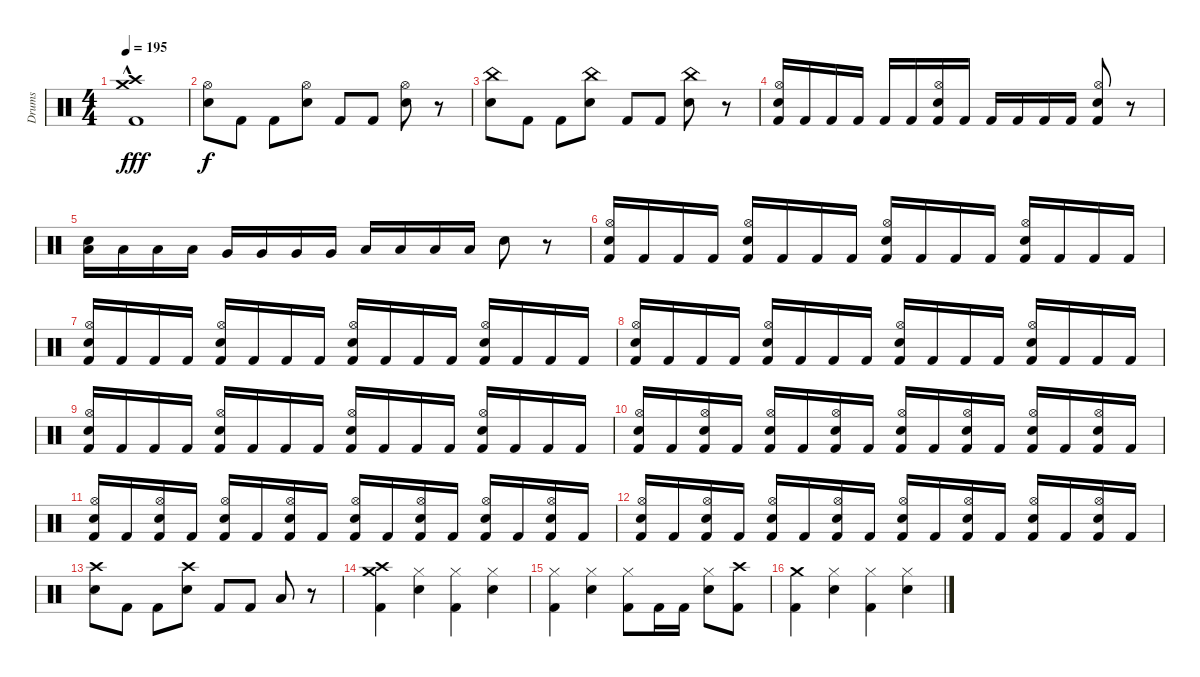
\track ("Drums" "Drums") {instrument percussion}
\staff {score}
\articulation defaults
\ts (4 4)
\tempo 195
\clef neutral
\ks c
("Crash high (hit)" "Crash medium (hit)" "Kick (hit) 2"{hac}).1{dy fff} |
("Hi-Hat (open)" "Electric Snare (hit)").8{dy f} "Kick (hit) 2".8 "Kick (hit) 2".8 ("Hi-Hat (open)" "Electric Snare (hit)").8 "Kick (hit) 2".8 "Kick (hit) 2".8 ("Hi-Hat (open)" "Electric Snare (hit)").8 r.8 |
("China (hit)" "Electric Snare (hit)").8 "Kick (hit) 2".8 "Kick (hit) 2".8 ("China (hit)" "Electric Snare (hit)").8 "Kick (hit) 2".8 "Kick (hit) 2".8 ("China (hit)" "Electric Snare (hit)").8 r.8 |
("Hi-Hat (open)" "Kick (hit) 2" "Electric Snare (hit)").16 "Kick (hit) 2".16 "Kick (hit) 2".16 "Kick (hit) 2".16 "Kick (hit) 2".16 "Kick (hit) 2".16 ("Hi-Hat (open)" "Kick (hit) 2" "Electric Snare (hit)").16 "Kick (hit) 2".16 "Kick (hit) 2".16 "Kick (hit) 2".16 "Kick (hit) 2".16 "Kick (hit) 2".16 ("Hi-Hat (open)" "Kick (hit) 2" "Electric Snare (hit)").8 r.8 |
("Electric Snare (hit)" "Low Tom (hit)").16 "Low Tom (hit)".16 "Low Tom (hit)".16 "Low Tom (hit)".16 "Very Low Tom (hit)".16 "Very Low Tom (hit)".16 "Very Low Tom (hit)".16 "Very Low Tom (hit)".16 "Low Floor Tom (hit)".16 "Low Floor Tom (hit)".16 "Low Floor Tom (hit)".16 "Low Floor Tom (hit)".16 "Electric Snare (hit)".8 r.8 |
("Hi-Hat (open)" "Kick (hit) 2" "Electric Snare (hit)").16 "Kick (hit) 2".16 "Kick (hit) 2".16 "Kick (hit) 2".16 ("Hi-Hat (open)" "Kick (hit) 2" "Electric Snare (hit)").16 "Kick (hit) 2".16 "Kick (hit) 2".16 "Kick (hit) 2".16 ("Hi-Hat (open)" "Kick (hit) 2" "Electric Snare (hit)").16 "Kick (hit) 2".16 "Kick (hit) 2".16 "Kick (hit) 2".16 ("Hi-Hat (open)" "Kick (hit) 2" "Electric Snare (hit)").16 "Kick (hit) 2".16 "Kick (hit) 2".16 "Kick (hit) 2".16 |
("Hi-Hat (open)" "Kick (hit) 2" "Electric Snare (hit)").16 "Kick (hit) 2".16 "Kick (hit) 2".16 "Kick (hit) 2".16 ("Hi-Hat (open)" "Kick (hit) 2" "Electric Snare (hit)").16 "Kick (hit) 2".16 "Kick (hit) 2".16 "Kick (hit) 2".16 ("Hi-Hat (open)" "Kick (hit) 2" "Electric Snare (hit)").16 "Kick (hit) 2".16 "Kick (hit) 2".16 "Kick (hit) 2".16 ("Hi-Hat (open)" "Kick (hit) 2" "Electric Snare (hit)").16 "Kick (hit) 2".16 "Kick (hit) 2".16 "Kick (hit) 2".16 |
("Hi-Hat (open)" "Kick (hit) 2" "Electric Snare (hit)").16 "Kick (hit) 2".16 "Kick (hit) 2".16 "Kick (hit) 2".16 ("Hi-Hat (open)" "Kick (hit) 2" "Electric Snare (hit)").16 "Kick (hit) 2".16 "Kick (hit) 2".16 "Kick (hit) 2".16 ("Hi-Hat (open)" "Kick (hit) 2" "Electric Snare (hit)").16 "Kick (hit) 2".16 "Kick (hit) 2".16 "Kick (hit) 2".16 ("Hi-Hat (open)" "Kick (hit) 2" "Electric Snare (hit)").16 "Kick (hit) 2".16 "Kick (hit) 2".16 "Kick (hit) 2".16 |
("Hi-Hat (open)" "Kick (hit) 2" "Electric Snare (hit)").16 "Kick (hit) 2".16 "Kick (hit) 2".16 "Kick (hit) 2".16 ("Hi-Hat (open)" "Kick (hit) 2" "Electric Snare (hit)").16 "Kick (hit) 2".16 "Kick (hit) 2".16 "Kick (hit) 2".16 ("Hi-Hat (open)" "Kick (hit) 2" "Electric Snare (hit)").16 "Kick (hit) 2".16 "Kick (hit) 2".16 "Kick (hit) 2".16 ("Hi-Hat (open)" "Kick (hit) 2" "Electric Snare (hit)").16 "Kick (hit) 2".16 "Kick (hit) 2".16 "Kick (hit) 2".16 |
("Hi-Hat (open)" "Kick (hit) 2" "Electric Snare (hit)").16 "Kick (hit) 2".16 ("Hi-Hat (open)" "Kick (hit) 2" "Electric Snare (hit)").16 "Kick (hit) 2".16 ("Hi-Hat (open)" "Kick (hit) 2" "Electric Snare (hit)").16 "Kick (hit) 2".16 ("Hi-Hat (open)" "Kick (hit) 2" "Electric Snare (hit)").16 "Kick (hit) 2".16 ("Hi-Hat (open)" "Kick (hit) 2" "Electric Snare (hit)").16 "Kick (hit) 2".16 ("Hi-Hat (open)" "Kick (hit) 2" "Electric Snare (hit)").16 "Kick (hit) 2".16 ("Hi-Hat (open)" "Kick (hit) 2" "Electric Snare (hit)").16 "Kick (hit) 2".16 ("Hi-Hat (open)" "Kick (hit) 2" "Electric Snare (hit)").16 "Kick (hit) 2".16 |
("Hi-Hat (open)" "Kick (hit) 2" "Electric Snare (hit)").16 "Kick (hit) 2".16 ("Hi-Hat (open)" "Kick (hit) 2" "Electric Snare (hit)").16 "Kick (hit) 2".16 ("Hi-Hat (open)" "Kick (hit) 2" "Electric Snare (hit)").16 "Kick (hit) 2".16 ("Hi-Hat (open)" "Kick (hit) 2" "Electric Snare (hit)").16 "Kick (hit) 2".16 ("Hi-Hat (open)" "Kick (hit) 2" "Electric Snare (hit)").16 "Kick (hit) 2".16 ("Hi-Hat (open)" "Kick (hit) 2" "Electric Snare (hit)").16 "Kick (hit) 2".16 ("Hi-Hat (open)" "Kick (hit) 2" "Electric Snare (hit)").16 "Kick (hit) 2".16 ("Hi-Hat (open)" "Kick (hit) 2" "Electric Snare (hit)").16 "Kick (hit) 2".16 |
("Hi-Hat (open)" "Kick (hit) 2" "Electric Snare (hit)").16 "Kick (hit) 2".16 ("Hi-Hat (open)" "Kick (hit) 2" "Electric Snare (hit)").16 "Kick (hit) 2".16 ("Hi-Hat (open)" "Kick (hit) 2" "Electric Snare (hit)").16 "Kick (hit) 2".16 ("Hi-Hat (open)" "Kick (hit) 2" "Electric Snare (hit)").16 "Kick (hit) 2".16 ("Hi-Hat (open)" "Kick (hit) 2" "Electric Snare (hit)").16 "Kick (hit) 2".16 ("Hi-Hat (open)" "Kick (hit) 2" "Electric Snare (hit)").16 "Kick (hit) 2".16 ("Hi-Hat (open)" "Kick (hit) 2" "Electric Snare (hit)").16 "Kick (hit) 2".16 ("Hi-Hat (open)" "Kick (hit) 2" "Electric Snare (hit)").16 "Kick (hit) 2".16 |
("Crash high (hit)" "Electric Snare (hit)").8 "Kick (hit) 2".8 "Kick (hit) 2".8 ("Crash high (hit)" "Electric Snare (hit)").8 "Kick (hit) 2".8 "Kick (hit) 2".8 "Low Tom (hit)".8 r.8 |
("Crash high (hit)" "Kick (hit) 2" "Crash medium (hit)").4 ("Hi-Hat (closed)" "Electric Snare (hit)").4 ("Hi-Hat (closed)" "Kick (hit) 2").4 ("Hi-Hat (closed)" "Electric Snare (hit)").4 |
("Hi-Hat (closed)" "Kick (hit) 2").4 ("Hi-Hat (closed)" "Electric Snare (hit)").4 ("Hi-Hat (closed)" "Kick (hit) 2").8 "Kick (hit) 2".16 "Kick (hit) 2".16 ("Hi-Hat (closed)" "Electric Snare (hit)").8 ("Crash high (hit)" "Kick (hit) 2").8 |
("Crash medium (hit)" "Kick (hit) 2").4 ("Hi-Hat (closed)" "Electric Snare (hit)").4 ("Hi-Hat (closed)" "Kick (hit) 2").4 ("Hi-Hat (closed)" "Electric Snare (hit)").4
